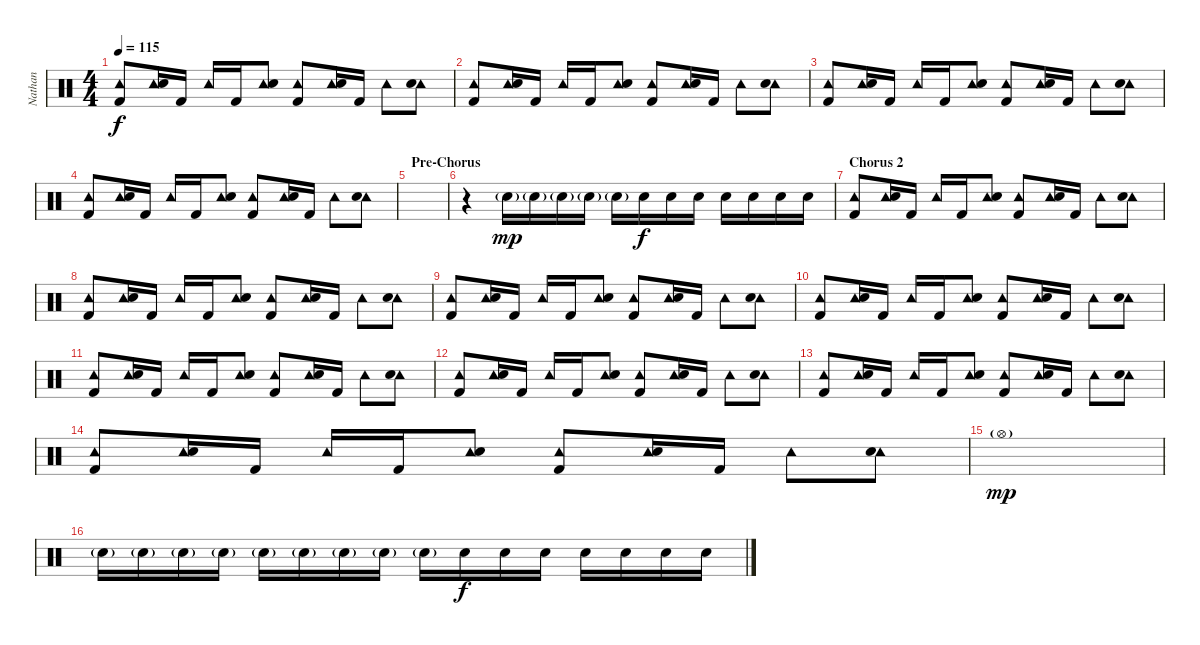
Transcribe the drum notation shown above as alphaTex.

\track ("Nathan" "Nathan") {instrument percussion}
\staff {score}
\articulation defaults
\ts (4 4)
\tempo 115
\clef neutral
\ks c
("Tambourine (hit)" "Kick (hit) 2").8{dy f} ("Tambourine (hit)" "Electric Snare (hit)").16 "Kick (hit) 2".16 "Tambourine (hit)".16 "Kick (hit) 2".16 ("Tambourine (hit)" "Electric Snare (hit)").8 ("Tambourine (hit)" "Kick (hit) 2").8 ("Tambourine (hit)" "Electric Snare (hit)").16 "Kick (hit) 2".16 "Tambourine (hit)".8 ("Tambourine (hit)" "Electric Snare (hit)").8 |
("Tambourine (hit)" "Kick (hit) 2").8 ("Tambourine (hit)" "Electric Snare (hit)").16 "Kick (hit) 2".16 "Tambourine (hit)".16 "Kick (hit) 2".16 ("Tambourine (hit)" "Electric Snare (hit)").8 ("Tambourine (hit)" "Kick (hit) 2").8 ("Tambourine (hit)" "Electric Snare (hit)").16 "Kick (hit) 2".16 "Tambourine (hit)".8 ("Tambourine (hit)" "Electric Snare (hit)").8 |
("Tambourine (hit)" "Kick (hit) 2").8 ("Tambourine (hit)" "Electric Snare (hit)").16 "Kick (hit) 2".16 "Tambourine (hit)".16 "Kick (hit) 2".16 ("Tambourine (hit)" "Electric Snare (hit)").8 ("Tambourine (hit)" "Kick (hit) 2").8 ("Tambourine (hit)" "Electric Snare (hit)").16 "Kick (hit) 2".16 "Tambourine (hit)".8 ("Tambourine (hit)" "Electric Snare (hit)").8 |
("Tambourine (hit)" "Kick (hit) 2").8 ("Tambourine (hit)" "Electric Snare (hit)").16 "Kick (hit) 2".16 "Tambourine (hit)".16 "Kick (hit) 2".16 ("Tambourine (hit)" "Electric Snare (hit)").8 ("Tambourine (hit)" "Kick (hit) 2").8 ("Tambourine (hit)" "Electric Snare (hit)").16 "Kick (hit) 2".16 "Tambourine (hit)".8 ("Tambourine (hit)" "Electric Snare (hit)").8 |
\section ("" "Pre-Chorus")
|
r.4 "Electric Snare (hit)"{g}.16{dy mp} "Electric Snare (hit)"{g}.16 "Electric Snare (hit)"{g}.16 "Electric Snare (hit)"{g}.16 "Electric Snare (hit)"{g}.16 "Electric Snare (hit)".16{dy f} "Electric Snare (hit)".16 "Electric Snare (hit)".16 "Electric Snare (hit)".16 "Electric Snare (hit)".16 "Electric Snare (hit)".16 "Electric Snare (hit)".16 |
\section ("" "Chorus 2")
("Tambourine (hit)" "Kick (hit) 2").8 ("Tambourine (hit)" "Electric Snare (hit)").16 "Kick (hit) 2".16 "Tambourine (hit)".16 "Kick (hit) 2".16 ("Tambourine (hit)" "Electric Snare (hit)").8 ("Tambourine (hit)" "Kick (hit) 2").8 ("Tambourine (hit)" "Electric Snare (hit)").16 "Kick (hit) 2".16 "Tambourine (hit)".8 ("Tambourine (hit)" "Electric Snare (hit)").8 |
("Tambourine (hit)" "Kick (hit) 2").8 ("Tambourine (hit)" "Electric Snare (hit)").16 "Kick (hit) 2".16 "Tambourine (hit)".16 "Kick (hit) 2".16 ("Tambourine (hit)" "Electric Snare (hit)").8 ("Tambourine (hit)" "Kick (hit) 2").8 ("Tambourine (hit)" "Electric Snare (hit)").16 "Kick (hit) 2".16 "Tambourine (hit)".8 ("Tambourine (hit)" "Electric Snare (hit)").8 |
("Tambourine (hit)" "Kick (hit) 2").8 ("Tambourine (hit)" "Electric Snare (hit)").16 "Kick (hit) 2".16 "Tambourine (hit)".16 "Kick (hit) 2".16 ("Tambourine (hit)" "Electric Snare (hit)").8 ("Tambourine (hit)" "Kick (hit) 2").8 ("Tambourine (hit)" "Electric Snare (hit)").16 "Kick (hit) 2".16 "Tambourine (hit)".8 ("Tambourine (hit)" "Electric Snare (hit)").8 |
("Tambourine (hit)" "Kick (hit) 2").8 ("Tambourine (hit)" "Electric Snare (hit)").16 "Kick (hit) 2".16 "Tambourine (hit)".16 "Kick (hit) 2".16 ("Tambourine (hit)" "Electric Snare (hit)").8 ("Tambourine (hit)" "Kick (hit) 2").8 ("Tambourine (hit)" "Electric Snare (hit)").16 "Kick (hit) 2".16 "Tambourine (hit)".8 ("Tambourine (hit)" "Electric Snare (hit)").8 |
("Tambourine (hit)" "Kick (hit) 2").8 ("Tambourine (hit)" "Electric Snare (hit)").16 "Kick (hit) 2".16 "Tambourine (hit)".16 "Kick (hit) 2".16 ("Tambourine (hit)" "Electric Snare (hit)").8 ("Tambourine (hit)" "Kick (hit) 2").8 ("Tambourine (hit)" "Electric Snare (hit)").16 "Kick (hit) 2".16 "Tambourine (hit)".8 ("Tambourine (hit)" "Electric Snare (hit)").8 |
("Tambourine (hit)" "Kick (hit) 2").8 ("Tambourine (hit)" "Electric Snare (hit)").16 "Kick (hit) 2".16 "Tambourine (hit)".16 "Kick (hit) 2".16 ("Tambourine (hit)" "Electric Snare (hit)").8 ("Tambourine (hit)" "Kick (hit) 2").8 ("Tambourine (hit)" "Electric Snare (hit)").16 "Kick (hit) 2".16 "Tambourine (hit)".8 ("Tambourine (hit)" "Electric Snare (hit)").8 |
("Tambourine (hit)" "Kick (hit) 2").8 ("Tambourine (hit)" "Electric Snare (hit)").16 "Kick (hit) 2".16 "Tambourine (hit)".16 "Kick (hit) 2".16 ("Tambourine (hit)" "Electric Snare (hit)").8 ("Tambourine (hit)" "Kick (hit) 2").8 ("Tambourine (hit)" "Electric Snare (hit)").16 "Kick (hit) 2".16 "Tambourine (hit)".8 ("Tambourine (hit)" "Electric Snare (hit)").8 |
("Tambourine (hit)" "Kick (hit) 2").8 ("Tambourine (hit)" "Electric Snare (hit)").16 "Kick (hit) 2".16 "Tambourine (hit)".16 "Kick (hit) 2".16 ("Tambourine (hit)" "Electric Snare (hit)").8 ("Tambourine (hit)" "Kick (hit) 2").8 ("Tambourine (hit)" "Electric Snare (hit)").16 "Kick (hit) 2".16 "Tambourine (hit)".8 ("Tambourine (hit)" "Electric Snare (hit)").8 |
"Hi-Hat (open)"{g}.1{dy mp} |
"Electric Snare (hit)"{g}.16 "Electric Snare (hit)"{g}.16 "Electric Snare (hit)"{g}.16 "Electric Snare (hit)"{g}.16 "Electric Snare (hit)"{g}.16 "Electric Snare (hit)"{g}.16 "Electric Snare (hit)"{g}.16 "Electric Snare (hit)"{g}.16 "Electric Snare (hit)"{g}.16 "Electric Snare (hit)".16{dy f} "Electric Snare (hit)".16 "Electric Snare (hit)".16 "Electric Snare (hit)".16 "Electric Snare (hit)".16 "Electric Snare (hit)".16 "Electric Snare (hit)".16
